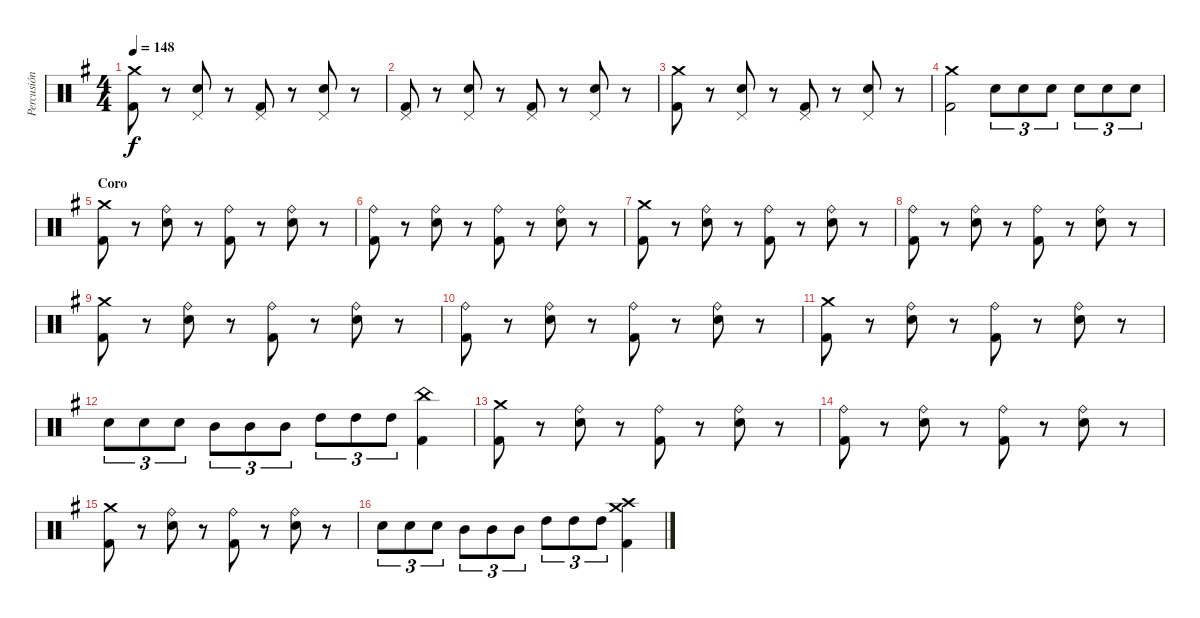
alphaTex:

\track ("Percusión" "Percusión") {instrument percussion}
\staff {score}
\articulation defaults
\ts (4 4)
\tempo 148
\clef neutral
\ks g
("Crash medium (hit)" "Kick (hit) 2").8{dy f} r.8 ("Pedal Hi-Hat (hit)" "Snare (hit) 2").8 r.8 ("Pedal Hi-Hat (hit)" "Kick (hit) 2").8 r.8 ("Pedal Hi-Hat (hit)" "Snare (hit) 2").8 r.8 |
("Pedal Hi-Hat (hit)" "Kick (hit) 2").8 r.8 ("Pedal Hi-Hat (hit)" "Snare (hit) 2").8 r.8 ("Pedal Hi-Hat (hit)" "Kick (hit) 2").8 r.8 ("Pedal Hi-Hat (hit)" "Snare (hit) 2").8 r.8 |
("Crash medium (hit)" "Kick (hit) 2").8 r.8 ("Pedal Hi-Hat (hit)" "Snare (hit) 2").8 r.8 ("Pedal Hi-Hat (hit)" "Kick (hit) 2").8 r.8 ("Pedal Hi-Hat (hit)" "Snare (hit) 2").8 r.8 |
("Crash medium (hit)" "Kick (hit) 2").2 "Snare (hit) 2".8{tu (3 2)} "Snare (hit) 2".8{tu (3 2)} "Snare (hit) 2".8{tu (3 2)} "Snare (hit) 2".8{tu (3 2)} "Snare (hit) 2".8{tu (3 2)} "Snare (hit) 2".8{tu (3 2)} |
\section ("" "Coro")
("Crash medium (hit)" "Kick (hit) 2").8 r.8 ("Ride (bell)" "Snare (hit) 2").8 r.8 ("Ride (bell)" "Kick (hit) 2").8 r.8 ("Ride (bell)" "Snare (hit) 2").8 r.8 |
("Ride (bell)" "Kick (hit) 2").8 r.8 ("Ride (bell)" "Snare (hit) 2").8 r.8 ("Ride (bell)" "Kick (hit) 2").8 r.8 ("Ride (bell)" "Snare (hit) 2").8 r.8 |
("Crash medium (hit)" "Kick (hit) 2").8 r.8 ("Ride (bell)" "Snare (hit) 2").8 r.8 ("Ride (bell)" "Kick (hit) 2").8 r.8 ("Ride (bell)" "Snare (hit) 2").8 r.8 |
("Ride (bell)" "Kick (hit) 2").8 r.8 ("Ride (bell)" "Snare (hit) 2").8 r.8 ("Ride (bell)" "Kick (hit) 2").8 r.8 ("Ride (bell)" "Snare (hit) 2").8 r.8 |
("Crash medium (hit)" "Kick (hit) 2").8 r.8 ("Ride (bell)" "Snare (hit) 2").8 r.8 ("Ride (bell)" "Kick (hit) 2").8 r.8 ("Ride (bell)" "Snare (hit) 2").8 r.8 |
("Ride (bell)" "Kick (hit) 2").8 r.8 ("Ride (bell)" "Snare (hit) 2").8 r.8 ("Ride (bell)" "Kick (hit) 2").8 r.8 ("Ride (bell)" "Snare (hit) 2").8 r.8 |
("Crash medium (hit)" "Kick (hit) 2").8 r.8 ("Ride (bell)" "Snare (hit) 2").8 r.8 ("Ride (bell)" "Kick (hit) 2").8 r.8 ("Ride (bell)" "Snare (hit) 2").8 r.8 |
"Snare (hit) 2".8{tu (3 2)} "Snare (hit) 2".8{tu (3 2)} "Snare (hit) 2".8{tu (3 2)} "Mid Tom (hit)".8{tu (3 2)} "Mid Tom (hit)".8{tu (3 2)} "Mid Tom (hit)".8{tu (3 2)} "High Tom (hit)".8{tu (3 2)} "High Tom (hit)".8{tu (3 2)} "High Tom (hit)".8{tu (3 2)} ("China (hit)" "Kick (hit) 2").4 |
("Crash medium (hit)" "Kick (hit) 2").8 r.8 ("Ride (bell)" "Snare (hit) 2").8 r.8 ("Ride (bell)" "Kick (hit) 2").8 r.8 ("Ride (bell)" "Snare (hit) 2").8 r.8 |
("Ride (bell)" "Kick (hit) 2").8 r.8 ("Ride (bell)" "Snare (hit) 2").8 r.8 ("Ride (bell)" "Kick (hit) 2").8 r.8 ("Ride (bell)" "Snare (hit) 2").8 r.8 |
("Crash medium (hit)" "Kick (hit) 2").8 r.8 ("Ride (bell)" "Snare (hit) 2").8 r.8 ("Ride (bell)" "Kick (hit) 2").8 r.8 ("Ride (bell)" "Snare (hit) 2").8 r.8 |
"Snare (hit) 2".8{tu (3 2)} "Snare (hit) 2".8{tu (3 2)} "Snare (hit) 2".8{tu (3 2)} "Mid Tom (hit)".8{tu (3 2)} "Mid Tom (hit)".8{tu (3 2)} "Mid Tom (hit)".8{tu (3 2)} "High Tom (hit)".8{tu (3 2)} "High Tom (hit)".8{tu (3 2)} "High Tom (hit)".8{tu (3 2)} ("Crash medium (hit)" "Crash high (hit)" "Kick (hit) 2").4
